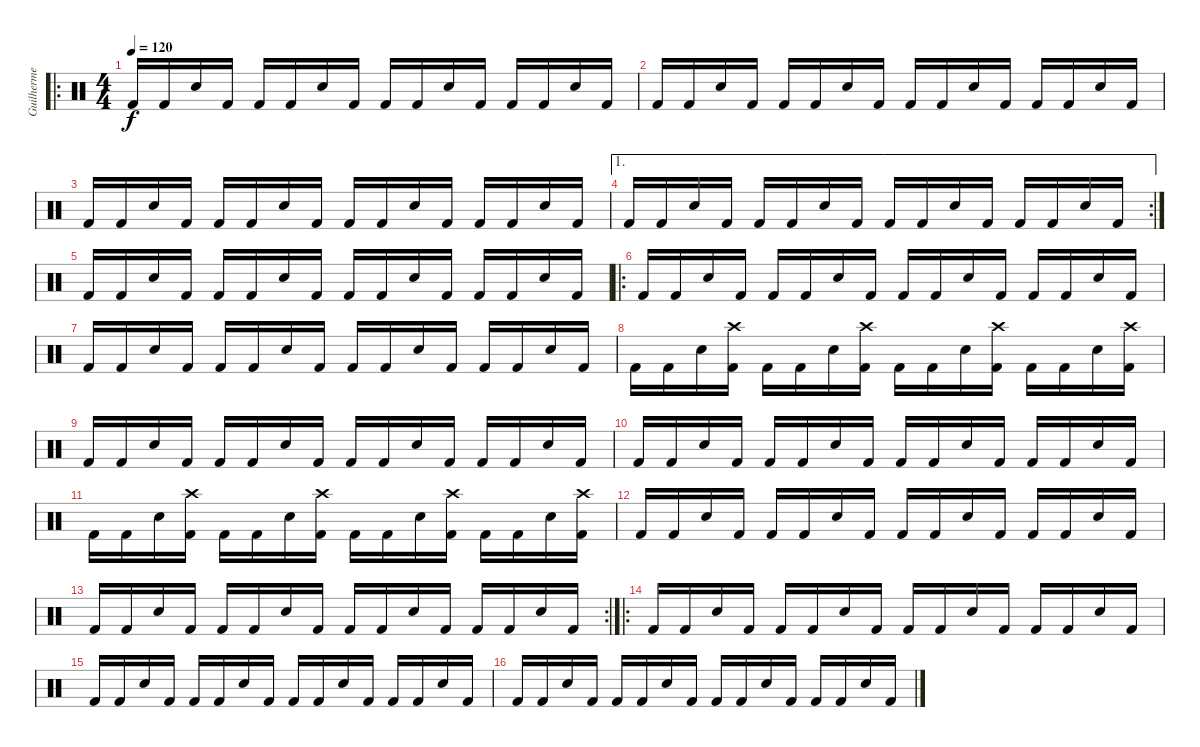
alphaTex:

\track ("Guilherme" "Guilherme") {instrument percussion}
\staff {score}
\articulation defaults
\ro
\ts (4 4)
\tempo 120
\clef neutral
\ks c "Kick (hit) 2".16{dy f} "Kick (hit) 2".16 "Snare (hit) 2".16 "Kick (hit) 2".16 "Kick (hit) 2".16 "Kick (hit) 2".16 "Snare (hit) 2".16 "Kick (hit) 2".16 "Kick (hit) 2".16 "Kick (hit) 2".16 "Snare (hit) 2".16 "Kick (hit) 2".16 "Kick (hit) 2".16 "Kick (hit) 2".16 "Snare (hit) 2".16 "Kick (hit) 2".16
|
"Kick (hit) 2".16 "Kick (hit) 2".16 "Snare (hit) 2".16 "Kick (hit) 2".16 "Kick (hit) 2".16 "Kick (hit) 2".16 "Snare (hit) 2".16 "Kick (hit) 2".16 "Kick (hit) 2".16 "Kick (hit) 2".16 "Snare (hit) 2".16 "Kick (hit) 2".16 "Kick (hit) 2".16 "Kick (hit) 2".16 "Snare (hit) 2".16 "Kick (hit) 2".16 |
"Kick (hit) 2".16 "Kick (hit) 2".16 "Snare (hit) 2".16 "Kick (hit) 2".16 "Kick (hit) 2".16 "Kick (hit) 2".16 "Snare (hit) 2".16 "Kick (hit) 2".16 "Kick (hit) 2".16 "Kick (hit) 2".16 "Snare (hit) 2".16 "Kick (hit) 2".16 "Kick (hit) 2".16 "Kick (hit) 2".16 "Snare (hit) 2".16 "Kick (hit) 2".16 |
\ae 1
\rc 2 "Kick (hit) 2".16 "Kick (hit) 2".16 "Snare (hit) 2".16 "Kick (hit) 2".16 "Kick (hit) 2".16 "Kick (hit) 2".16 "Snare (hit) 2".16 "Kick (hit) 2".16 "Kick (hit) 2".16 "Kick (hit) 2".16 "Snare (hit) 2".16 "Kick (hit) 2".16 "Kick (hit) 2".16 "Kick (hit) 2".16 "Snare (hit) 2".16 "Kick (hit) 2".16
|
"Kick (hit) 2".16 "Kick (hit) 2".16 "Snare (hit) 2".16 "Kick (hit) 2".16 "Kick (hit) 2".16 "Kick (hit) 2".16 "Snare (hit) 2".16 "Kick (hit) 2".16 "Kick (hit) 2".16 "Kick (hit) 2".16 "Snare (hit) 2".16 "Kick (hit) 2".16 "Kick (hit) 2".16 "Kick (hit) 2".16 "Snare (hit) 2".16 "Kick (hit) 2".16 |
\ro "Kick (hit) 2".16 "Kick (hit) 2".16 "Snare (hit) 2".16 "Kick (hit) 2".16 "Kick (hit) 2".16 "Kick (hit) 2".16 "Snare (hit) 2".16 "Kick (hit) 2".16 "Kick (hit) 2".16 "Kick (hit) 2".16 "Snare (hit) 2".16 "Kick (hit) 2".16 "Kick (hit) 2".16 "Kick (hit) 2".16 "Snare (hit) 2".16 "Kick (hit) 2".16
|
"Kick (hit) 2".16 "Kick (hit) 2".16 "Snare (hit) 2".16 "Kick (hit) 2".16 "Kick (hit) 2".16 "Kick (hit) 2".16 "Snare (hit) 2".16 "Kick (hit) 2".16 "Kick (hit) 2".16 "Kick (hit) 2".16 "Snare (hit) 2".16 "Kick (hit) 2".16 "Kick (hit) 2".16 "Kick (hit) 2".16 "Snare (hit) 2".16 "Kick (hit) 2".16 |
"Kick (hit) 2".16 "Kick (hit) 2".16 "Snare (hit) 2".16 ("Crash high (hit)" "Kick (hit) 2").16 "Kick (hit) 2".16 "Kick (hit) 2".16 "Snare (hit) 2".16 ("Crash high (hit)" "Kick (hit) 2").16 "Kick (hit) 2".16 "Kick (hit) 2".16 "Snare (hit) 2".16 ("Crash high (hit)" "Kick (hit) 2").16 "Kick (hit) 2".16 "Kick (hit) 2".16 "Snare (hit) 2".16 ("Crash high (hit)" "Kick (hit) 2").16 |
"Kick (hit) 2".16 "Kick (hit) 2".16 "Snare (hit) 2".16 "Kick (hit) 2".16 "Kick (hit) 2".16 "Kick (hit) 2".16 "Snare (hit) 2".16 "Kick (hit) 2".16 "Kick (hit) 2".16 "Kick (hit) 2".16 "Snare (hit) 2".16 "Kick (hit) 2".16 "Kick (hit) 2".16 "Kick (hit) 2".16 "Snare (hit) 2".16 "Kick (hit) 2".16 |
"Kick (hit) 2".16 "Kick (hit) 2".16 "Snare (hit) 2".16 "Kick (hit) 2".16 "Kick (hit) 2".16 "Kick (hit) 2".16 "Snare (hit) 2".16 "Kick (hit) 2".16 "Kick (hit) 2".16 "Kick (hit) 2".16 "Snare (hit) 2".16 "Kick (hit) 2".16 "Kick (hit) 2".16 "Kick (hit) 2".16 "Snare (hit) 2".16 "Kick (hit) 2".16 |
"Kick (hit) 2".16 "Kick (hit) 2".16 "Snare (hit) 2".16 ("Crash high (hit)" "Kick (hit) 2").16 "Kick (hit) 2".16 "Kick (hit) 2".16 "Snare (hit) 2".16 ("Crash high (hit)" "Kick (hit) 2").16 "Kick (hit) 2".16 "Kick (hit) 2".16 "Snare (hit) 2".16 ("Crash high (hit)" "Kick (hit) 2").16 "Kick (hit) 2".16 "Kick (hit) 2".16 "Snare (hit) 2".16 ("Crash high (hit)" "Kick (hit) 2").16 |
"Kick (hit) 2".16 "Kick (hit) 2".16 "Snare (hit) 2".16 "Kick (hit) 2".16 "Kick (hit) 2".16 "Kick (hit) 2".16 "Snare (hit) 2".16 "Kick (hit) 2".16 "Kick (hit) 2".16 "Kick (hit) 2".16 "Snare (hit) 2".16 "Kick (hit) 2".16 "Kick (hit) 2".16 "Kick (hit) 2".16 "Snare (hit) 2".16 "Kick (hit) 2".16 |
\rc 2 "Kick (hit) 2".16 "Kick (hit) 2".16 "Snare (hit) 2".16 "Kick (hit) 2".16 "Kick (hit) 2".16 "Kick (hit) 2".16 "Snare (hit) 2".16 "Kick (hit) 2".16 "Kick (hit) 2".16 "Kick (hit) 2".16 "Snare (hit) 2".16 "Kick (hit) 2".16 "Kick (hit) 2".16 "Kick (hit) 2".16 "Snare (hit) 2".16 "Kick (hit) 2".16
|
\ro "Kick (hit) 2".16 "Kick (hit) 2".16 "Snare (hit) 2".16 "Kick (hit) 2".16 "Kick (hit) 2".16 "Kick (hit) 2".16 "Snare (hit) 2".16 "Kick (hit) 2".16 "Kick (hit) 2".16 "Kick (hit) 2".16 "Snare (hit) 2".16 "Kick (hit) 2".16 "Kick (hit) 2".16 "Kick (hit) 2".16 "Snare (hit) 2".16 "Kick (hit) 2".16
|
"Kick (hit) 2".16 "Kick (hit) 2".16 "Snare (hit) 2".16 "Kick (hit) 2".16 "Kick (hit) 2".16 "Kick (hit) 2".16 "Snare (hit) 2".16 "Kick (hit) 2".16 "Kick (hit) 2".16 "Kick (hit) 2".16 "Snare (hit) 2".16 "Kick (hit) 2".16 "Kick (hit) 2".16 "Kick (hit) 2".16 "Snare (hit) 2".16 "Kick (hit) 2".16 |
"Kick (hit) 2".16 "Kick (hit) 2".16 "Snare (hit) 2".16 "Kick (hit) 2".16 "Kick (hit) 2".16 "Kick (hit) 2".16 "Snare (hit) 2".16 "Kick (hit) 2".16 "Kick (hit) 2".16 "Kick (hit) 2".16 "Snare (hit) 2".16 "Kick (hit) 2".16 "Kick (hit) 2".16 "Kick (hit) 2".16 "Snare (hit) 2".16 "Kick (hit) 2".16
